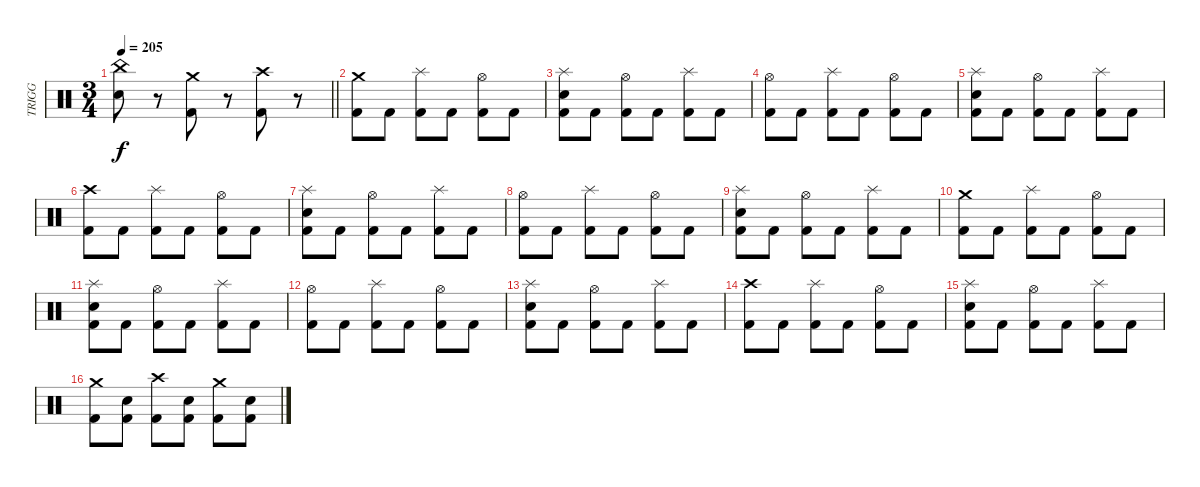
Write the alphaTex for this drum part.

\track ("TRIGG" "TRIGG") {instrument percussion}
\staff {score}
\articulation defaults
\ts (3 4)
\tempo 205
\clef neutral
\barLineRight lightlight
\ks c
("China (hit)" "Electric Snare (hit)").8{dy f} r.8 ("Crash medium (hit)" "Kick (hit) 2").8 r.8 ("Crash high (hit)" "Kick (hit) 2").8 r.8 |
("Crash medium (hit)" "Kick (hit) 2").8 "Kick (hit) 2".8 ("Splash (hit)" "Kick (hit) 2").8 "Kick (hit) 2".8 ("Hi-Hat (open)" "Kick (hit) 2").8 "Kick (hit) 2".8 |
("Splash (hit)" "Electric Snare (hit)" "Kick (hit) 2").8 "Kick (hit) 2".8 ("Hi-Hat (open)" "Kick (hit) 2").8 "Kick (hit) 2".8 ("Splash (hit)" "Kick (hit) 2").8 "Kick (hit) 2".8 |
("Hi-Hat (open)" "Kick (hit) 2").8 "Kick (hit) 2".8 ("Splash (hit)" "Kick (hit) 2").8 "Kick (hit) 2".8 ("Hi-Hat (open)" "Kick (hit) 2").8 "Kick (hit) 2".8 |
("Splash (hit)" "Electric Snare (hit)" "Kick (hit) 2").8 "Kick (hit) 2".8 ("Hi-Hat (open)" "Kick (hit) 2").8 "Kick (hit) 2".8 ("Splash (hit)" "Kick (hit) 2").8 "Kick (hit) 2".8 |
("Crash high (hit)" "Kick (hit) 2").8 "Kick (hit) 2".8 ("Splash (hit)" "Kick (hit) 2").8 "Kick (hit) 2".8 ("Hi-Hat (open)" "Kick (hit) 2").8 "Kick (hit) 2".8 |
("Splash (hit)" "Electric Snare (hit)" "Kick (hit) 2").8 "Kick (hit) 2".8 ("Hi-Hat (open)" "Kick (hit) 2").8 "Kick (hit) 2".8 ("Splash (hit)" "Kick (hit) 2").8 "Kick (hit) 2".8 |
("Hi-Hat (open)" "Kick (hit) 2").8 "Kick (hit) 2".8 ("Splash (hit)" "Kick (hit) 2").8 "Kick (hit) 2".8 ("Hi-Hat (open)" "Kick (hit) 2").8 "Kick (hit) 2".8 |
("Splash (hit)" "Electric Snare (hit)" "Kick (hit) 2").8 "Kick (hit) 2".8 ("Hi-Hat (open)" "Kick (hit) 2").8 "Kick (hit) 2".8 ("Splash (hit)" "Kick (hit) 2").8 "Kick (hit) 2".8 |
("Crash medium (hit)" "Kick (hit) 2").8 "Kick (hit) 2".8 ("Splash (hit)" "Kick (hit) 2").8 "Kick (hit) 2".8 ("Hi-Hat (open)" "Kick (hit) 2").8 "Kick (hit) 2".8 |
("Splash (hit)" "Electric Snare (hit)" "Kick (hit) 2").8 "Kick (hit) 2".8 ("Hi-Hat (open)" "Kick (hit) 2").8 "Kick (hit) 2".8 ("Splash (hit)" "Kick (hit) 2").8 "Kick (hit) 2".8 |
("Hi-Hat (open)" "Kick (hit) 2").8 "Kick (hit) 2".8 ("Splash (hit)" "Kick (hit) 2").8 "Kick (hit) 2".8 ("Hi-Hat (open)" "Kick (hit) 2").8 "Kick (hit) 2".8 |
("Splash (hit)" "Electric Snare (hit)" "Kick (hit) 2").8 "Kick (hit) 2".8 ("Hi-Hat (open)" "Kick (hit) 2").8 "Kick (hit) 2".8 ("Splash (hit)" "Kick (hit) 2").8 "Kick (hit) 2".8 |
("Crash high (hit)" "Kick (hit) 2").8 "Kick (hit) 2".8 ("Splash (hit)" "Kick (hit) 2").8 "Kick (hit) 2".8 ("Hi-Hat (open)" "Kick (hit) 2").8 "Kick (hit) 2".8 |
("Splash (hit)" "Electric Snare (hit)" "Kick (hit) 2").8 "Kick (hit) 2".8 ("Hi-Hat (open)" "Kick (hit) 2").8 "Kick (hit) 2".8 ("Splash (hit)" "Kick (hit) 2").8 "Kick (hit) 2".8 |
("Crash medium (hit)" "Kick (hit) 2").8 ("Electric Snare (hit)" "Kick (hit) 2").8 ("Crash high (hit)" "Kick (hit) 2").8 ("Electric Snare (hit)" "Kick (hit) 2").8 ("Crash medium (hit)" "Kick (hit) 2").8 ("Electric Snare (hit)" "Kick (hit) 2").8
